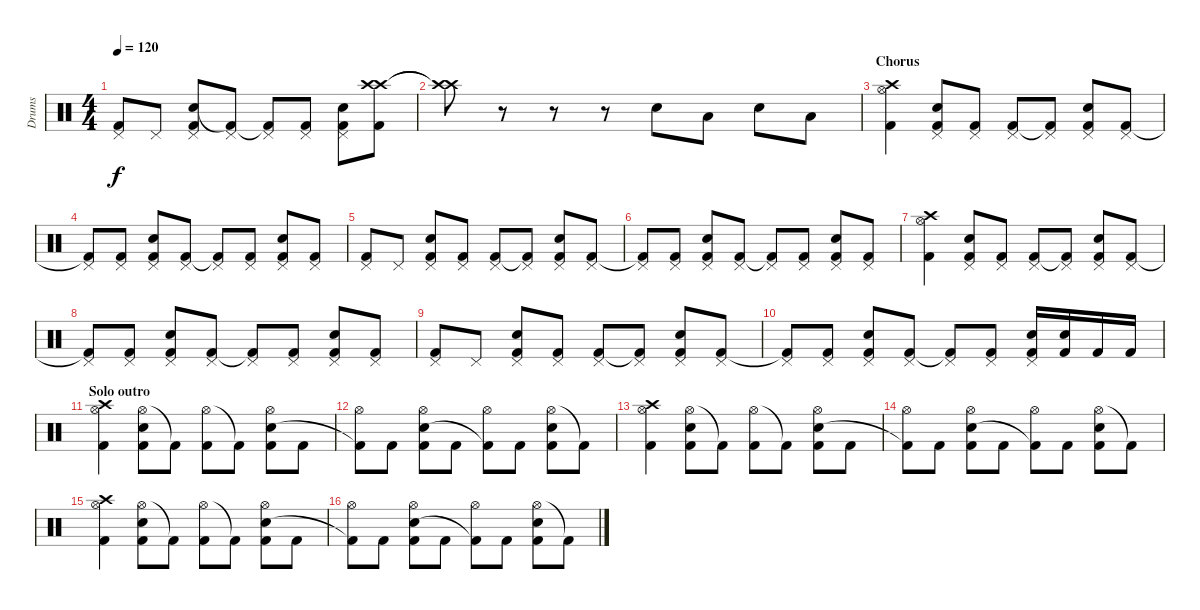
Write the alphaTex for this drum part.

\track ("Drums" "Drums") {instrument percussion}
\staff {score}
\articulation defaults
\ts (4 4)
\tempo 120
\clef neutral
\ks c
("Pedal Hi-Hat (hit)" "Kick (hit) 2").8{dy f} "Pedal Hi-Hat (hit)".8 ("Pedal Hi-Hat (hit)" "Electric Snare (hit)" "Kick (hit) 2").8 ("Pedal Hi-Hat (hit)" "Kick (hit) 2"{t}).8 ("Pedal Hi-Hat (hit)" "Kick (hit) 2"{t}).8 ("Pedal Hi-Hat (hit)" "Kick (hit) 2").8 ("Pedal Hi-Hat (hit)" "Electric Snare (hit)" "Kick (hit) 2").8 ("Crash high (hit)" "Crash high (hit)" "Kick (hit) 2").8 |
("Crash high (hit)"{t} "Crash high (hit)"{t}).8 r.8 r.8 r.8 "Electric Snare (hit)".8 "Low Tom (hit)".8 "Electric Snare (hit)".8 "Low Tom (hit)".8 |
\section ("" "Chorus")
("Crash high (hit)" "Hi-Hat (open)" "Kick (hit) 2").4 ("Pedal Hi-Hat (hit)" "Electric Snare (hit)" "Kick (hit) 2").8 ("Pedal Hi-Hat (hit)" "Kick (hit) 2").8 ("Pedal Hi-Hat (hit)" "Kick (hit) 2").8 ("Pedal Hi-Hat (hit)" "Kick (hit) 2"{t}).8 ("Pedal Hi-Hat (hit)" "Electric Snare (hit)" "Kick (hit) 2").8 ("Pedal Hi-Hat (hit)" "Kick (hit) 2").8 |
("Pedal Hi-Hat (hit)" "Kick (hit) 2"{t}).8 ("Pedal Hi-Hat (hit)" "Kick (hit) 2").8 ("Pedal Hi-Hat (hit)" "Electric Snare (hit)" "Kick (hit) 2").8 ("Pedal Hi-Hat (hit)" "Kick (hit) 2").8 ("Pedal Hi-Hat (hit)" "Kick (hit) 2"{t}).8 ("Pedal Hi-Hat (hit)" "Kick (hit) 2").8 ("Pedal Hi-Hat (hit)" "Electric Snare (hit)" "Kick (hit) 2").8 ("Pedal Hi-Hat (hit)" "Kick (hit) 2").8 |
("Pedal Hi-Hat (hit)" "Kick (hit) 2").8 "Pedal Hi-Hat (hit)".8 ("Pedal Hi-Hat (hit)" "Electric Snare (hit)" "Kick (hit) 2").8 ("Pedal Hi-Hat (hit)" "Kick (hit) 2").8 ("Pedal Hi-Hat (hit)" "Kick (hit) 2").8 ("Pedal Hi-Hat (hit)" "Kick (hit) 2"{t}).8 ("Pedal Hi-Hat (hit)" "Electric Snare (hit)" "Kick (hit) 2").8 ("Pedal Hi-Hat (hit)" "Kick (hit) 2").8 |
("Pedal Hi-Hat (hit)" "Kick (hit) 2"{t}).8 ("Pedal Hi-Hat (hit)" "Kick (hit) 2").8 ("Pedal Hi-Hat (hit)" "Electric Snare (hit)" "Kick (hit) 2").8 ("Pedal Hi-Hat (hit)" "Kick (hit) 2").8 ("Pedal Hi-Hat (hit)" "Kick (hit) 2"{t}).8 ("Pedal Hi-Hat (hit)" "Kick (hit) 2").8 ("Pedal Hi-Hat (hit)" "Electric Snare (hit)" "Kick (hit) 2").8 ("Pedal Hi-Hat (hit)" "Kick (hit) 2").8 |
("Crash high (hit)" "Hi-Hat (open)" "Kick (hit) 2").4 ("Pedal Hi-Hat (hit)" "Electric Snare (hit)" "Kick (hit) 2").8 ("Pedal Hi-Hat (hit)" "Kick (hit) 2").8 ("Pedal Hi-Hat (hit)" "Kick (hit) 2").8 ("Pedal Hi-Hat (hit)" "Kick (hit) 2"{t}).8 ("Pedal Hi-Hat (hit)" "Electric Snare (hit)" "Kick (hit) 2").8 ("Pedal Hi-Hat (hit)" "Kick (hit) 2").8 |
("Pedal Hi-Hat (hit)" "Kick (hit) 2"{t}).8 ("Pedal Hi-Hat (hit)" "Kick (hit) 2").8 ("Pedal Hi-Hat (hit)" "Electric Snare (hit)" "Kick (hit) 2").8 ("Pedal Hi-Hat (hit)" "Kick (hit) 2").8 ("Pedal Hi-Hat (hit)" "Kick (hit) 2"{t}).8 ("Pedal Hi-Hat (hit)" "Kick (hit) 2").8 ("Pedal Hi-Hat (hit)" "Electric Snare (hit)" "Kick (hit) 2").8 ("Pedal Hi-Hat (hit)" "Kick (hit) 2").8 |
("Pedal Hi-Hat (hit)" "Kick (hit) 2").8 "Pedal Hi-Hat (hit)".8 ("Pedal Hi-Hat (hit)" "Electric Snare (hit)" "Kick (hit) 2").8 ("Pedal Hi-Hat (hit)" "Kick (hit) 2").8 ("Pedal Hi-Hat (hit)" "Kick (hit) 2").8 ("Pedal Hi-Hat (hit)" "Kick (hit) 2"{t}).8 ("Pedal Hi-Hat (hit)" "Electric Snare (hit)" "Kick (hit) 2").8 ("Pedal Hi-Hat (hit)" "Kick (hit) 2").8 |
("Pedal Hi-Hat (hit)" "Kick (hit) 2"{t}).8 ("Pedal Hi-Hat (hit)" "Kick (hit) 2").8 ("Pedal Hi-Hat (hit)" "Electric Snare (hit)" "Kick (hit) 2").8 ("Pedal Hi-Hat (hit)" "Kick (hit) 2").8 ("Pedal Hi-Hat (hit)" "Kick (hit) 2"{t}).8 ("Pedal Hi-Hat (hit)" "Kick (hit) 2").8 ("Pedal Hi-Hat (hit)" "Electric Snare (hit)" "Kick (hit) 2").16 ("Electric Snare (hit)" "Kick (hit) 2").16 "Kick (hit) 2".16 "Kick (hit) 2".16 |
\section ("" "Solo outro")
("Crash high (hit)" "Hi-Hat (open)" "Kick (hit) 2").4 ("Hi-Hat (open)" "Electric Snare (hit)" "Kick (hit) 2").8 "Kick (hit) 2"{t}.8 ("Hi-Hat (open)" "Kick (hit) 2").8 "Kick (hit) 2"{t}.8 ("Hi-Hat (open)" "Electric Snare (hit)" "Kick (hit) 2").8 "Kick (hit) 2".8 |
("Hi-Hat (open)" "Kick (hit) 2"{t}).8 "Kick (hit) 2".8 ("Hi-Hat (open)" "Electric Snare (hit)" "Kick (hit) 2").8 "Kick (hit) 2".8 ("Hi-Hat (open)" "Kick (hit) 2"{t}).8 "Kick (hit) 2".8 ("Hi-Hat (open)" "Electric Snare (hit)" "Kick (hit) 2").8 "Kick (hit) 2"{t}.8 |
("Crash high (hit)" "Hi-Hat (open)" "Kick (hit) 2").4 ("Hi-Hat (open)" "Electric Snare (hit)" "Kick (hit) 2").8 "Kick (hit) 2"{t}.8 ("Hi-Hat (open)" "Kick (hit) 2").8 "Kick (hit) 2"{t}.8 ("Hi-Hat (open)" "Electric Snare (hit)" "Kick (hit) 2").8 "Kick (hit) 2".8 |
("Hi-Hat (open)" "Kick (hit) 2"{t}).8 "Kick (hit) 2".8 ("Hi-Hat (open)" "Electric Snare (hit)" "Kick (hit) 2").8 "Kick (hit) 2".8 ("Hi-Hat (open)" "Kick (hit) 2"{t}).8 "Kick (hit) 2".8 ("Hi-Hat (open)" "Electric Snare (hit)" "Kick (hit) 2").8 "Kick (hit) 2"{t}.8 |
("Crash high (hit)" "Hi-Hat (open)" "Kick (hit) 2").4 ("Hi-Hat (open)" "Electric Snare (hit)" "Kick (hit) 2").8 "Kick (hit) 2"{t}.8 ("Hi-Hat (open)" "Kick (hit) 2").8 "Kick (hit) 2"{t}.8 ("Hi-Hat (open)" "Electric Snare (hit)" "Kick (hit) 2").8 "Kick (hit) 2".8 |
("Hi-Hat (open)" "Kick (hit) 2"{t}).8 "Kick (hit) 2".8 ("Hi-Hat (open)" "Electric Snare (hit)" "Kick (hit) 2").8 "Kick (hit) 2".8 ("Hi-Hat (open)" "Kick (hit) 2"{t}).8 "Kick (hit) 2".8 ("Hi-Hat (open)" "Electric Snare (hit)" "Kick (hit) 2").8 "Kick (hit) 2"{t}.8
